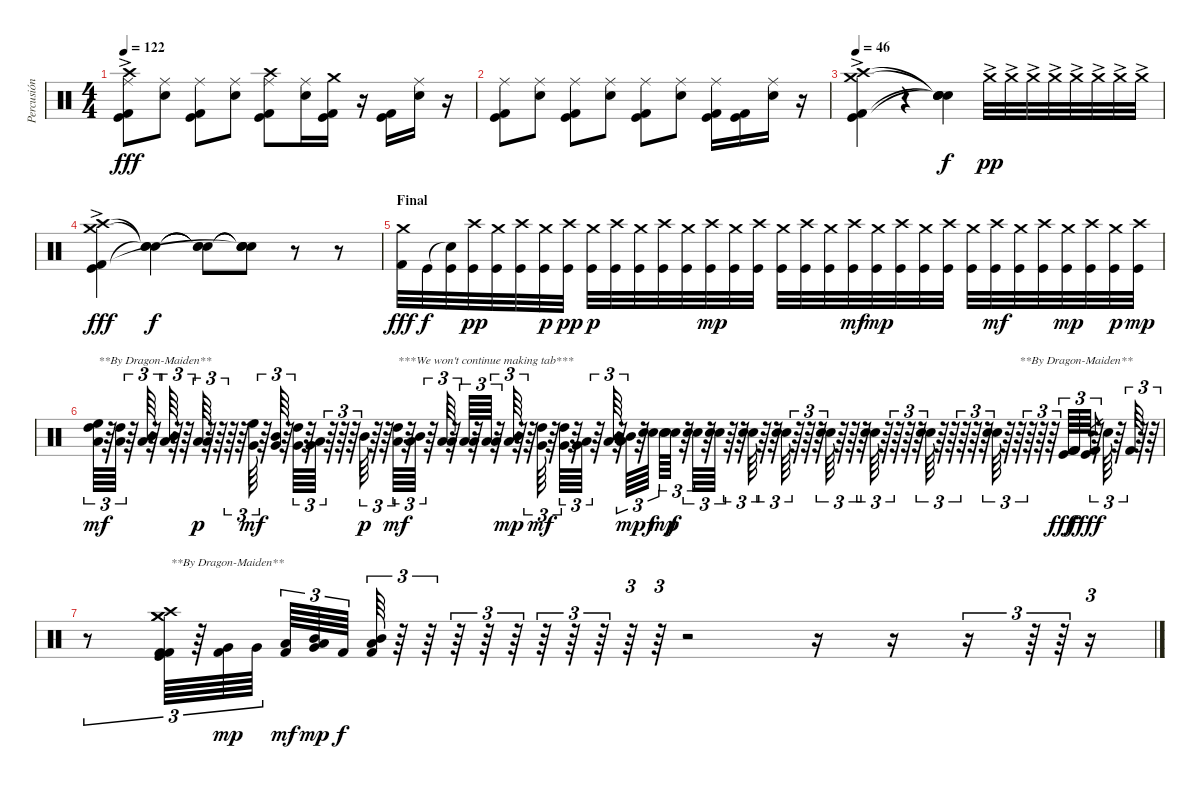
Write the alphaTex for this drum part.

\track ("Percusión" "Percusión") {instrument percussion}
\staff {score}
\articulation defaults
\ts (4 4)
\tempo 122
\clef neutral
\ks c
("Crash high (hit)"{ac} "Ride (middle)" "Kick (hit)" "Kick (hit) 2").8{dy fff} ("Ride (middle)" "Electric Snare (hit)").8 ("Ride (middle)" "Kick (hit)" "Kick (hit) 2").8 ("Ride (middle)" "Electric Snare (hit)").8 ("Crash high (hit)" "Ride (middle)" "Kick (hit)" "Kick (hit) 2").8 ("Ride (middle)" "Electric Snare (hit)").16 ("Crash medium (hit)" "Kick (hit)" "Kick (hit) 2").16 r.16 ("Kick (hit)" "Kick (hit) 2").16 ("Ride (middle)" "Electric Snare (hit)").16 r.16 |
("Ride (middle)" "Kick (hit)" "Kick (hit) 2").8 ("Ride (middle)" "Electric Snare (hit)").8 ("Ride (middle)" "Kick (hit)" "Kick (hit) 2").8 ("Ride (middle)" "Electric Snare (hit)").8 ("Ride (middle)" "Kick (hit)" "Kick (hit) 2").8 ("Ride (middle)" "Electric Snare (hit)").8 ("Ride (middle)" "Kick (hit)" "Kick (hit) 2").16 ("Kick (hit)" "Kick (hit) 2").16 ("Ride (middle)" "Electric Snare (hit)").16 r.16 |
\tempo 46
("Crash high (hit)"{ac} "Crash medium (hit)" "Kick (hit)" "Kick (hit) 2").4 r.4 ("Snare (hit)"{t} "Snare (hit)"{t} "Snare (hit)"{t} "Snare (hit)"{t}).4{dy f} "Crash medium (hit)"{ac}.32{dy pp} "Crash medium (hit)"{ac}.32 "Crash medium (hit)"{ac}.32 "Crash medium (hit)"{ac}.32 "Crash medium (hit)"{ac}.32 "Crash medium (hit)"{ac}.32 "Crash medium (hit)"{ac}.32 "Crash medium (hit)"{ac}.32 |
("Crash medium (hit)"{ac} "Crash high (hit)" "Kick (hit)" "Kick (hit) 2").4{dy fff} ("Snare (hit)"{t} "Snare (hit)"{t} "Snare (hit)"{t}).4{dy f} ("Snare (hit)"{t} "Snare (hit)"{t} "Snare (hit)"{t}).8 ("Snare (hit)"{t} "Snare (hit)"{t} "Snare (hit)"{t} "Snare (hit)"{t}).8 r.8 r.8 |
\section ("" "Final")
("Crash medium (hit)" "Kick (hit) 2").32{dy fff} "Kick (hit)".32{dy f} ("Snare (hit)"{t} "Kick (hit)").32 ("Crash high (hit)" "Kick (hit)").32{dy pp} ("Crash medium (hit)" "Kick (hit)").32 ("Crash high (hit)" "Kick (hit)").32 ("Crash medium (hit)" "Kick (hit)").32{dy p} ("Crash high (hit)" "Kick (hit)").32{dy pp} ("Crash medium (hit)" "Kick (hit)").32{dy p} ("Crash high (hit)" "Kick (hit)").32 ("Crash medium (hit)" "Kick (hit)").32 ("Crash high (hit)" "Kick (hit)").32 ("Crash medium (hit)" "Kick (hit)").32 ("Crash high (hit)" "Kick (hit)").32{dy mp} ("Crash medium (hit)" "Kick (hit)").32 ("Crash high (hit)" "Kick (hit)").32 ("Crash medium (hit)" "Kick (hit)").32 ("Crash high (hit)" "Kick (hit)").32 ("Crash medium (hit)" "Kick (hit)").32 ("Crash high (hit)" "Kick (hit)").32{dy mf} ("Crash medium (hit)" "Kick (hit)").32{dy mp} ("Crash high (hit)" "Kick (hit)").32 ("Crash medium (hit)" "Kick (hit)").32 ("Crash high (hit)" "Kick (hit)").32 ("Crash medium (hit)" "Kick (hit)").32 ("Crash high (hit)" "Kick (hit)").32{dy mf} ("Crash medium (hit)" "Kick (hit)").32 ("Crash high (hit)" "Kick (hit)").32 ("Crash medium (hit)" "Kick (hit)").32{dy mp} ("Crash high (hit)" "Kick (hit)").32 ("Crash medium (hit)" "Kick (hit)").32{dy p} ("Crash high (hit)" "Kick (hit)").32{dy mp} |
("High Tom (hit)" "Low Floor Tom (hit)" "High Floor Tom (hit)").64{tu (3 2) txt "**By Dragon-Maiden**     " dy mf} r.64{tu (3 2)} ("High Tom (hit)" "Low Floor Tom (hit)").64{tu (3 2)} r.64{tu (3 2)} ("Mid Tom (hit)" "Low Floor Tom (hit)").64{tu (3 2)} r.64{tu (3 2)} ("Mid Tom (hit)" "Low Floor Tom (hit)").64{tu (3 2)} r.64{tu (3 2)} r.64{tu (3 2)} ("Low Tom (hit)" "Low Floor Tom (hit)").64{tu (3 2) dy p} r.64{tu (3 2)} r.64{tu (3 2)} r.64{tu (3 2)} r.64{tu (3 2)} ("High Floor Tom (hit)" "Very Low Tom (hit)").64{tu (3 2) dy mf} r.64{tu (3 2)} ("Mid Tom (hit)" "Very Low Tom (hit)").64{tu (3 2)} r.64{tu (3 2)} ("High Tom (hit)" "Very Low Tom (hit)").64{tu (3 2)} r.64{tu (3 2)} ("Low Tom (hit)" "Very Low Tom (hit)").64{tu (3 2)} r.64{tu (3 2)} r.64{tu (3 2)} r.64{tu (3 2)} "Mid Tom (hit)".64{tu (3 2) dy p} r.64{tu (3 2)} r.64{tu (3 2)} ("High Tom (hit)" "Low Floor Tom (hit)").64{tu (3 2) txt "***We won't continue making tab***" dy mf} r.64{tu (3 2)} ("Mid Tom (hit)" "Low Floor Tom (hit)").64{tu (3 2)} r.64{tu (3 2)} ("Low Tom (hit)" "Low Floor Tom (hit)").64{tu (3 2)} r.64{tu (3 2)} ("Low Tom (hit)" "Low Floor Tom (hit)").64{tu (3 2)} r.64{tu (3 2)} ("Low Tom (hit)" "Low Floor Tom (hit)").64{tu (3 2)} r.64{tu (3 2)} ("Low Tom (hit)" "Mid Tom (hit)").64{tu (3 2) dy mp} r.64{tu (3 2)} r.64{tu (3 2)} ("High Tom (hit)" "Very Low Tom (hit)").64{tu (3 2) dy mf} r.64{tu (3 2)} ("High Tom (hit)" "Very Low Tom (hit)").64{tu (3 2)} r.64{tu (3 2)} ("Low Tom (hit)" "Very Low Tom (hit)").64{tu (3 2)} r.64{tu (3 2)} ("Mid Tom (hit)" "Low Floor Tom (hit)").64{tu (3 2)} r.64{tu (3 2)} ("Mid Tom (hit)" "Low Floor Tom (hit)").64{tu (3 2) dy mp} r.64{tu (3 2)} ("Electric Snare (hit)" "Snare (hit) 2").64{tu (3 2) dy f} "Snare (hit) 2".64{tu (3 2) dy mp} ("Electric Snare (hit)" "Snare (hit) 2").64{tu (3 2) dy f} r.64{tu (3 2)} ("Electric Snare (hit)" "Snare (hit) 2").64{tu (3 2)} r.64{tu (3 2)} ("Electric Snare (hit)" "Snare (hit) 2").64{tu (3 2)} r.64{tu (3 2)} r.64{tu (3 2)} ("Electric Snare (hit)" "Snare (hit) 2").64{tu (3 2)} r.64{tu (3 2)} r.64{tu (3 2)} ("Electric Snare (hit)" "Snare (hit) 2").64{tu (3 2)} r.64{tu (3 2)} r.64{tu (3 2)} r.64{tu (3 2)} ("Electric Snare (hit)" "Snare (hit) 2").64{tu (3 2)} r.64{tu (3 2)} r.64{tu (3 2)} r.64{tu (3 2)} ("Electric Snare (hit)" "Snare (hit) 2").64{tu (3 2)} r.64{tu (3 2)} r.64{tu (3 2)} r.64{tu (3 2)} r.64{tu (3 2)} ("Electric Snare (hit)" "Snare (hit) 2").64{tu (3 2)} r.64{tu (3 2)} r.64{tu (3 2)} r.64{tu (3 2)} r.64{tu (3 2)} r.64{tu (3 2)} ("Electric Snare (hit)" "Snare (hit) 2").64{tu (3 2)} r.64{tu (3 2)} r.64{tu (3 2) txt "**By Dragon-Maiden**"} r.64{tu (3 2)} r.64{tu (3 2)} r.64{tu (3 2)} ("Kick (hit)" "Kick (hit) 2").64{tu (3 2) dy fff} "Kick (hit) 2".64{tu (3 2) dy f} ("Kick (hit)" "Kick (hit) 2").64{tu (3 2)} r.64{tu (3 2)} "Electric Snare (hit)".8{gr dy fff} "Electric Snare (hit)".64{tu (3 2)} r.64{tu (3 2)} "Kick (hit) 2".64{tu (3 2)} r.64{tu (3 2)} r.64{tu (3 2)} |
r.8{tu (3 2)} ("Crash medium (hit)" "Crash high (hit)" "Crash medium (hit)" "Kick (hit)" "Kick (hit) 2" "Kick (hit) 2").64{tu (3 2) txt "**By Dragon-Maiden**"} r.64{tu (3 2)} ("Very Low Tom (hit)" "Kick (hit) 2").64{tu (3 2) dy mp} "Very Low Tom (hit)".64{tu (3 2)} ("Low Floor Tom (hit)" "Kick (hit) 2").64{tu (3 2) dy mf} ("Mid Tom (hit)" "Very Low Tom (hit)" "Low Floor Tom (hit)").64{tu (3 2) dy mp} "Kick (hit) 2".64{tu (3 2) dy f} ("Mid Tom (hit)" "Low Floor Tom (hit)" "Kick (hit) 2").64{tu (3 2)} r.64{tu (3 2)} r.64{tu (3 2)} r.64{tu (3 2)} r.64{tu (3 2)} r.64{tu (3 2)} r.64{tu (3 2)} r.64{tu (3 2)} r.64{tu (3 2)} r.64{tu (3 2)} r.64{tu (3 2)} r.2 r.16 r.16 r.16{tu (3 2)} r.64{tu (3 2)} r.64{tu (3 2)} r.16{tu (3 2)}
